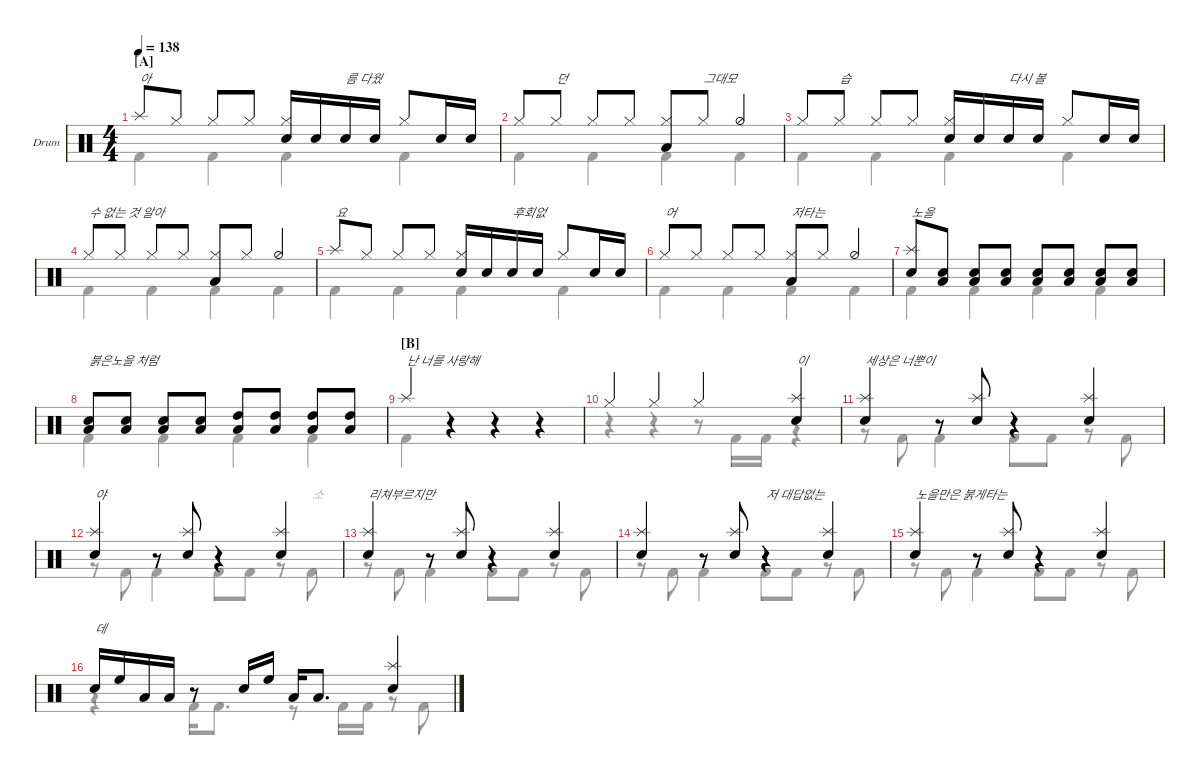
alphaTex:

\defaultSystemsLayout 4
\hideDynamics
\bracketExtendMode nobrackets
\firstSystemTrackNameOrientation horizontal
\track ("Drumkit" "Drum") {instrument percussion}
\staff {score}
\articulation defaults
\voice
\ts (4 4)
\section ("A" "")
\tempo 138
\clef neutral
\ks c "Splash (hit)".8{txt "아" dy mf beam Up} "Hi-Hat (closed)".8{beam Up} "Hi-Hat (closed)".8{beam Up} "Hi-Hat (closed)".8{beam Up}
("Hi-Hat (closed)" "Snare (hit) 2").16{beam Up} "Snare (hit) 2".16{beam Up} "Snare (hit) 2".16{txt "름 다웠" beam Up} "Snare (hit) 2".16{beam Up} "Hi-Hat (closed)".8{beam Up} "Snare (hit) 2".16{beam Up} "Snare (hit) 2".16{beam Up} |
"Hi-Hat (closed)".8{beam Up} "Hi-Hat (closed)".8{txt "던" beam Up} "Hi-Hat (closed)".8{beam Up} "Hi-Hat (closed)".8{beam Up} ("Hi-Hat (closed)" "Low Tom (hit)").8{beam Up} "Hi-Hat (closed)".8{txt "그대모" beam Up} "Hi-Hat (half)".4{beam Up} |
"Hi-Hat (closed)".8{beam Up} "Hi-Hat (closed)".8{txt "습" beam Up} "Hi-Hat (closed)".8{beam Up} "Hi-Hat (closed)".8{beam Up} ("Hi-Hat (closed)" "Snare (hit) 2").16{beam Up} "Snare (hit) 2".16{beam Up} "Snare (hit) 2".16{txt "다시 볼" beam Up} "Snare (hit) 2".16{beam Up} "Hi-Hat (closed)".8{beam Up} "Snare (hit) 2".16{beam Up} "Snare (hit) 2".16{beam Up} |
"Hi-Hat (closed)".8{txt "수 없는 것 알아" beam Up} "Hi-Hat (closed)".8{beam Up} "Hi-Hat (closed)".8{beam Up} "Hi-Hat (closed)".8{beam Up} ("Hi-Hat (closed)" "Low Tom (hit)").8{beam Up} "Hi-Hat (closed)".8{beam Up} "Hi-Hat (half)".4{beam Up} |
"Splash (hit)".8{txt "요" beam Up} "Hi-Hat (closed)".8{beam Up} "Hi-Hat (closed)".8{beam Up} "Hi-Hat (closed)".8{beam Up} ("Hi-Hat (closed)" "Snare (hit) 2").16{beam Up} "Snare (hit) 2".16{beam Up} "Snare (hit) 2".16{txt "후회없" beam Up} "Snare (hit) 2".16{beam Up} "Hi-Hat (closed)".8{beam Up} "Snare (hit) 2".16{beam Up} "Snare (hit) 2".16{beam Up} |
"Hi-Hat (closed)".8{txt "어" beam Up} "Hi-Hat (closed)".8{beam Up} "Hi-Hat (closed)".8{beam Up} "Hi-Hat (closed)".8{beam Up} ("Hi-Hat (closed)" "Low Tom (hit)").8{txt "저타는" beam Up} "Hi-Hat (closed)".8{beam Up} "Hi-Hat (half)".4{beam Up} |
("Splash (hit)" "Snare (hit) 2").8{txt "노을" beam Up} ("Snare (hit) 2" "Low Tom (hit)").8{beam Up} ("Snare (hit) 2" "Low Tom (hit)").8{beam Up} ("Snare (hit) 2" "Low Tom (hit)").8{beam Up} ("Snare (hit) 2" "Low Tom (hit)").8{beam Up} ("Snare (hit) 2" "Low Tom (hit)").8{beam Up} ("Snare (hit) 2" "Low Tom (hit)").8{beam Up} ("Snare (hit) 2" "Low Tom (hit)").8{beam Up} |
("Snare (hit) 2" "Low Tom (hit)").8{txt "붉은노을 처럼" beam Up} ("Snare (hit) 2" "Low Tom (hit)").8{beam Up} ("Snare (hit) 2" "Low Tom (hit)").8{beam Up} ("Snare (hit) 2" "Low Tom (hit)").8{beam Up} ("High Tom (hit)" "Low Tom (hit)").8{beam Up} ("High Tom (hit)" "Low Tom (hit)").8{beam Up} ("High Tom (hit)" "Low Tom (hit)").8{beam Up} ("High Tom (hit)" "Low Tom (hit)").8{beam Up} |
\section ("B" "")
"Splash (hit)".4{txt "난 너를 사랑해" beam Up} r.4{beam Up} r.4{beam Up} r.4{beam Up} |
"Hi-Hat (closed)".4{beam Up} "Hi-Hat (closed)".4{beam Up} "Hi-Hat (closed)".4{beam Up} ("Splash (hit)" "Snare (hit) 2").4{txt "이" beam Up} |
("Splash (hit)" "Snare (hit) 2").4{txt "세상은 너뿐이" beam Up} r.8{beam Up} ("Splash (hit)" "Snare (hit) 2").8{beam Up} r.4{beam Up} ("Splash (hit)" "Snare (hit) 2").4{beam Up} |
("Splash (hit)" "Snare (hit) 2").4{txt "야" beam Up} r.8{beam Up} ("Splash (hit)" "Snare (hit) 2").8{beam Up} r.4{beam Up} ("Splash (hit)" "Snare (hit) 2").4{beam Up} |
("Splash (hit)" "Snare (hit) 2").4{txt "리쳐부르지만" beam Up} r.8{beam Up} ("Splash (hit)" "Snare (hit) 2").8{beam Up} r.4{beam Up} ("Splash (hit)" "Snare (hit) 2").4{beam Up} |
("Splash (hit)" "Snare (hit) 2").4{beam Up} r.8{beam Up} ("Splash (hit)" "Snare (hit) 2").8{beam Up} r.4{txt "저 대답없는" beam Up} ("Splash (hit)" "Snare (hit) 2").4{beam Up} |
("Splash (hit)" "Snare (hit) 2").4{txt "노을만은 붉게타는" beam Up} r.8{beam Up} ("Splash (hit)" "Snare (hit) 2").8{beam Up} r.4{beam Up} ("Splash (hit)" "Snare (hit) 2").4{beam Up} |
"Snare (hit) 2".16{txt "데" beam Up} "High Floor Tom (hit)".16{beam Up} "Low Tom (hit)".16{beam Up} "Low Tom (hit)".16{beam Up} r.8{beam Up} "Snare (hit) 2".16{beam Up} "High Floor Tom (hit)".16{beam Up} "Low Tom (hit)".16{beam Up} "Low Tom (hit)".8{d beam Up} ("Snare (hit) 2" "Splash (hit)").4{beam Up}
\voice
\clef neutral
\ottava regular
\simile none
\ks c
|
|
|
|
|
|
|
|
|
|
|
|
|
|
|
\voice
\clef neutral
\ottava regular
\simile none
\ks c "Kick (hit) 2".4{dy mf beam Down} "Kick (hit) 2".4{beam Down} "Kick (hit) 2".4{beam Down} "Kick (hit) 2".4{beam Down}
|
"Kick (hit) 2".4{beam Down} "Kick (hit) 2".4{beam Down} "Kick (hit) 2".4{beam Down} "Kick (hit) 2".4{beam Down} |
"Kick (hit) 2".4{beam Down} "Kick (hit) 2".4{beam Down} "Kick (hit) 2".4{beam Down} "Kick (hit) 2".4{beam Down} |
"Kick (hit) 2".4{beam Down} "Kick (hit) 2".4{beam Down} "Kick (hit) 2".4{beam Down} "Kick (hit) 2".4{beam Down} |
"Kick (hit) 2".4{beam Down} "Kick (hit) 2".4{beam Down} "Kick (hit) 2".4{beam Down} "Kick (hit) 2".4{beam Down} |
"Kick (hit) 2".4{beam Down} "Kick (hit) 2".4{beam Down} "Kick (hit) 2".4{beam Down} "Kick (hit) 2".4{beam Down} |
"Kick (hit) 2".4{beam Down} "Kick (hit) 2".4{beam Down} "Kick (hit) 2".4{beam Down} "Kick (hit) 2".4{beam Down} |
"Kick (hit) 2".4{beam Down} "Kick (hit) 2".4{beam Down} "Kick (hit) 2".4{beam Down} "Kick (hit) 2".4{beam Down} |
"Kick (hit) 2".4{beam Down} r.4{beam Down} r.4{beam Down} r.4{beam Down} |
r.4{beam Down} r.4{beam Down} r.8{beam Down} "Kick (hit) 2".16{beam Down} "Kick (hit) 2".16{beam Down} r.4{beam Down} |
r.8{beam Down} "Kick (hit) 2".8{beam Down} "Kick (hit) 2".4{beam Down} "Kick (hit) 2".8{beam Down} "Kick (hit) 2".8{beam Down} r.8{beam Down} "Kick (hit) 2".8{beam Down} |
r.8{beam Down} "Kick (hit) 2".8{beam Down} "Kick (hit) 2".4{beam Down} "Kick (hit) 2".8{beam Down} "Kick (hit) 2".8{beam Down} r.8{beam Down} "Kick (hit) 2".8{txt "소" beam Down} |
r.8{beam Down} "Kick (hit) 2".8{beam Down} "Kick (hit) 2".4{beam Down} "Kick (hit) 2".8{beam Down} "Kick (hit) 2".8{beam Down} r.8{beam Down} "Kick (hit) 2".8{beam Down} |
r.8{beam Down} "Kick (hit) 2".8{beam Down} "Kick (hit) 2".4{beam Down} "Kick (hit) 2".8{beam Down} "Kick (hit) 2".8{beam Down} r.8{beam Down} "Kick (hit) 2".8{beam Down} |
r.8{beam Down} "Kick (hit) 2".8{beam Down} "Kick (hit) 2".4{beam Down} "Kick (hit) 2".8{beam Down} "Kick (hit) 2".8{beam Down} r.8{beam Down} "Kick (hit) 2".8{beam Down} |
r.4{beam Down} "Kick (hit) 2".16{beam Down} "Kick (hit) 2".8{d beam Down} r.8{beam Down} "Kick (hit) 2".16{beam Down} "Kick (hit) 2".16{beam Down} r.8{beam Down} "Kick (hit) 2".8{beam Down}
